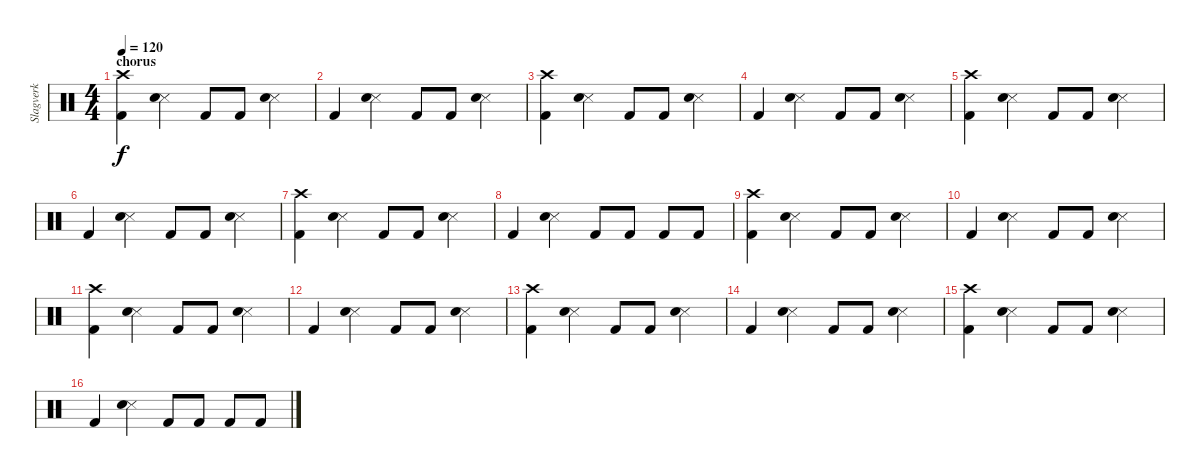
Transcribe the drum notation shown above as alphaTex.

\track ("Slagverk" "Slagverk") {instrument percussion}
\staff {score}
\articulation defaults
\ts (4 4)
\section ("" "chorus")
\tempo 120
\clef neutral
\ks c
("Kick (hit) 2" "Crash high (hit)").4{dy f} ("Snare (side stick) 3" "Snare (hit) 2").4 "Kick (hit) 2".8 "Kick (hit) 2".8 ("Snare (side stick) 3" "Snare (hit) 2").4 |
"Kick (hit) 2".4 ("Snare (side stick) 3" "Snare (hit) 2").4 "Kick (hit) 2".8 "Kick (hit) 2".8 ("Snare (side stick) 3" "Snare (hit) 2").4 |
("Kick (hit) 2" "Crash high (hit)").4 ("Snare (side stick) 3" "Snare (hit) 2").4 "Kick (hit) 2".8 "Kick (hit) 2".8 ("Snare (side stick) 3" "Snare (hit) 2").4 |
"Kick (hit) 2".4 ("Snare (side stick) 3" "Snare (hit) 2").4 "Kick (hit) 2".8 "Kick (hit) 2".8 ("Snare (side stick) 3" "Snare (hit) 2").4 |
("Kick (hit) 2" "Crash high (hit)").4 ("Snare (side stick) 3" "Snare (hit) 2").4 "Kick (hit) 2".8 "Kick (hit) 2".8 ("Snare (side stick) 3" "Snare (hit) 2").4 |
"Kick (hit) 2".4 ("Snare (side stick) 3" "Snare (hit) 2").4 "Kick (hit) 2".8 "Kick (hit) 2".8 ("Snare (side stick) 3" "Snare (hit) 2").4 |
("Kick (hit) 2" "Crash high (hit)").4 ("Snare (side stick) 3" "Snare (hit) 2").4 "Kick (hit) 2".8 "Kick (hit) 2".8 ("Snare (side stick) 3" "Snare (hit) 2").4 |
"Kick (hit) 2".4 ("Snare (side stick) 3" "Snare (hit) 2").4 "Kick (hit) 2".8 "Kick (hit) 2".8 "Kick (hit) 2".8 "Kick (hit) 2".8 |
("Kick (hit) 2" "Crash high (hit)").4 ("Snare (side stick) 3" "Snare (hit) 2").4 "Kick (hit) 2".8 "Kick (hit) 2".8 ("Snare (side stick) 3" "Snare (hit) 2").4 |
"Kick (hit) 2".4 ("Snare (side stick) 3" "Snare (hit) 2").4 "Kick (hit) 2".8 "Kick (hit) 2".8 ("Snare (side stick) 3" "Snare (hit) 2").4 |
("Kick (hit) 2" "Crash high (hit)").4 ("Snare (side stick) 3" "Snare (hit) 2").4 "Kick (hit) 2".8 "Kick (hit) 2".8 ("Snare (side stick) 3" "Snare (hit) 2").4 |
"Kick (hit) 2".4 ("Snare (side stick) 3" "Snare (hit) 2").4 "Kick (hit) 2".8 "Kick (hit) 2".8 ("Snare (side stick) 3" "Snare (hit) 2").4 |
("Kick (hit) 2" "Crash high (hit)").4 ("Snare (side stick) 3" "Snare (hit) 2").4 "Kick (hit) 2".8 "Kick (hit) 2".8 ("Snare (side stick) 3" "Snare (hit) 2").4 |
"Kick (hit) 2".4 ("Snare (side stick) 3" "Snare (hit) 2").4 "Kick (hit) 2".8 "Kick (hit) 2".8 ("Snare (side stick) 3" "Snare (hit) 2").4 |
("Kick (hit) 2" "Crash high (hit)").4 ("Snare (side stick) 3" "Snare (hit) 2").4 "Kick (hit) 2".8 "Kick (hit) 2".8 ("Snare (side stick) 3" "Snare (hit) 2").4 |
"Kick (hit) 2".4 ("Snare (side stick) 3" "Snare (hit) 2").4 "Kick (hit) 2".8 "Kick (hit) 2".8 "Kick (hit) 2".8 "Kick (hit) 2".8
